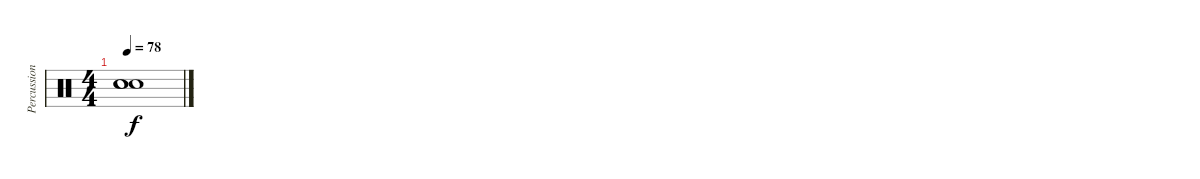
\track ("Percussion" "Percussion") {instrument percussion}
\staff {score}
\articulation defaults
\ts (4 4)
\tempo 78
\clef neutral
\ks c
("Snare (hit)"{t} "Snare (hit)"{t} "Snare (hit)"{t}).1{dy f}
